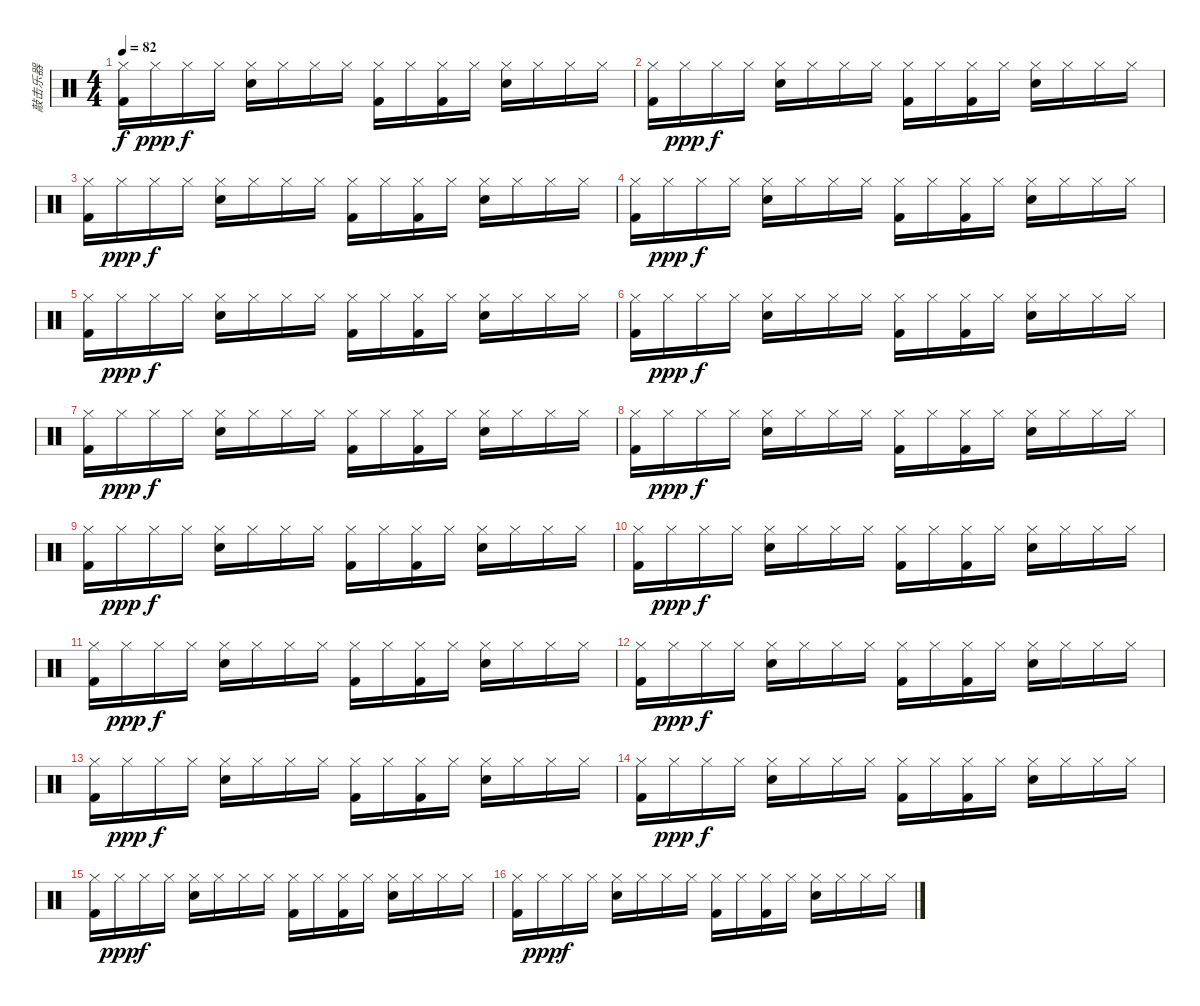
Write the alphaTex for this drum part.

\track ("敲击乐器" "敲击乐器") {instrument percussion}
\staff {score}
\articulation defaults
\ts (4 4)
\tempo 82
\clef neutral
\ks c
("Kick (hit) 2" "Hi-Hat (closed)").16{dy f} "Hi-Hat (closed)".16{dy ppp} "Hi-Hat (closed)".16{dy f} "Hi-Hat (closed)".16 ("Electric Snare (hit)" "Hi-Hat (closed)").16 "Hi-Hat (closed)".16 "Hi-Hat (closed)".16 "Hi-Hat (closed)".16 ("Kick (hit) 2" "Hi-Hat (closed)").16 "Hi-Hat (closed)".16 ("Kick (hit) 2" "Hi-Hat (closed)").16 "Hi-Hat (closed)".16 ("Electric Snare (hit)" "Hi-Hat (closed)").16 "Hi-Hat (closed)".16 "Hi-Hat (closed)".16 "Hi-Hat (closed)".16 |
("Kick (hit) 2" "Hi-Hat (closed)").16 "Hi-Hat (closed)".16{dy ppp} "Hi-Hat (closed)".16{dy f} "Hi-Hat (closed)".16 ("Electric Snare (hit)" "Hi-Hat (closed)").16 "Hi-Hat (closed)".16 "Hi-Hat (closed)".16 "Hi-Hat (closed)".16 ("Kick (hit) 2" "Hi-Hat (closed)").16 "Hi-Hat (closed)".16 ("Kick (hit) 2" "Hi-Hat (closed)").16 "Hi-Hat (closed)".16 ("Electric Snare (hit)" "Hi-Hat (closed)").16 "Hi-Hat (closed)".16 "Hi-Hat (closed)".16 "Hi-Hat (closed)".16 |
("Kick (hit) 2" "Hi-Hat (closed)").16 "Hi-Hat (closed)".16{dy ppp} "Hi-Hat (closed)".16{dy f} "Hi-Hat (closed)".16 ("Electric Snare (hit)" "Hi-Hat (closed)").16 "Hi-Hat (closed)".16 "Hi-Hat (closed)".16 "Hi-Hat (closed)".16 ("Kick (hit) 2" "Hi-Hat (closed)").16 "Hi-Hat (closed)".16 ("Kick (hit) 2" "Hi-Hat (closed)").16 "Hi-Hat (closed)".16 ("Electric Snare (hit)" "Hi-Hat (closed)").16 "Hi-Hat (closed)".16 "Hi-Hat (closed)".16 "Hi-Hat (closed)".16 |
("Kick (hit) 2" "Hi-Hat (closed)").16 "Hi-Hat (closed)".16{dy ppp} "Hi-Hat (closed)".16{dy f} "Hi-Hat (closed)".16 ("Electric Snare (hit)" "Hi-Hat (closed)").16 "Hi-Hat (closed)".16 "Hi-Hat (closed)".16 "Hi-Hat (closed)".16 ("Kick (hit) 2" "Hi-Hat (closed)").16 "Hi-Hat (closed)".16 ("Kick (hit) 2" "Hi-Hat (closed)").16 "Hi-Hat (closed)".16 ("Electric Snare (hit)" "Hi-Hat (closed)").16 "Hi-Hat (closed)".16 "Hi-Hat (closed)".16 "Hi-Hat (closed)".16 |
("Kick (hit) 2" "Hi-Hat (closed)").16 "Hi-Hat (closed)".16{dy ppp} "Hi-Hat (closed)".16{dy f} "Hi-Hat (closed)".16 ("Electric Snare (hit)" "Hi-Hat (closed)").16 "Hi-Hat (closed)".16 "Hi-Hat (closed)".16 "Hi-Hat (closed)".16 ("Kick (hit) 2" "Hi-Hat (closed)").16 "Hi-Hat (closed)".16 ("Kick (hit) 2" "Hi-Hat (closed)").16 "Hi-Hat (closed)".16 ("Electric Snare (hit)" "Hi-Hat (closed)").16 "Hi-Hat (closed)".16 "Hi-Hat (closed)".16 "Hi-Hat (closed)".16 |
("Kick (hit) 2" "Hi-Hat (closed)").16 "Hi-Hat (closed)".16{dy ppp} "Hi-Hat (closed)".16{dy f} "Hi-Hat (closed)".16 ("Electric Snare (hit)" "Hi-Hat (closed)").16 "Hi-Hat (closed)".16 "Hi-Hat (closed)".16 "Hi-Hat (closed)".16 ("Kick (hit) 2" "Hi-Hat (closed)").16 "Hi-Hat (closed)".16 ("Kick (hit) 2" "Hi-Hat (closed)").16 "Hi-Hat (closed)".16 ("Electric Snare (hit)" "Hi-Hat (closed)").16 "Hi-Hat (closed)".16 "Hi-Hat (closed)".16 "Hi-Hat (closed)".16 |
("Kick (hit) 2" "Hi-Hat (closed)").16 "Hi-Hat (closed)".16{dy ppp} "Hi-Hat (closed)".16{dy f} "Hi-Hat (closed)".16 ("Electric Snare (hit)" "Hi-Hat (closed)").16 "Hi-Hat (closed)".16 "Hi-Hat (closed)".16 "Hi-Hat (closed)".16 ("Kick (hit) 2" "Hi-Hat (closed)").16 "Hi-Hat (closed)".16 ("Kick (hit) 2" "Hi-Hat (closed)").16 "Hi-Hat (closed)".16 ("Electric Snare (hit)" "Hi-Hat (closed)").16 "Hi-Hat (closed)".16 "Hi-Hat (closed)".16 "Hi-Hat (closed)".16 |
("Kick (hit) 2" "Hi-Hat (closed)").16 "Hi-Hat (closed)".16{dy ppp} "Hi-Hat (closed)".16{dy f} "Hi-Hat (closed)".16 ("Electric Snare (hit)" "Hi-Hat (closed)").16 "Hi-Hat (closed)".16 "Hi-Hat (closed)".16 "Hi-Hat (closed)".16 ("Kick (hit) 2" "Hi-Hat (closed)").16 "Hi-Hat (closed)".16 ("Kick (hit) 2" "Hi-Hat (closed)").16 "Hi-Hat (closed)".16 ("Electric Snare (hit)" "Hi-Hat (closed)").16 "Hi-Hat (closed)".16 "Hi-Hat (closed)".16 "Hi-Hat (closed)".16 |
("Kick (hit) 2" "Hi-Hat (closed)").16 "Hi-Hat (closed)".16{dy ppp} "Hi-Hat (closed)".16{dy f} "Hi-Hat (closed)".16 ("Electric Snare (hit)" "Hi-Hat (closed)").16 "Hi-Hat (closed)".16 "Hi-Hat (closed)".16 "Hi-Hat (closed)".16 ("Kick (hit) 2" "Hi-Hat (closed)").16 "Hi-Hat (closed)".16 ("Kick (hit) 2" "Hi-Hat (closed)").16 "Hi-Hat (closed)".16 ("Electric Snare (hit)" "Hi-Hat (closed)").16 "Hi-Hat (closed)".16 "Hi-Hat (closed)".16 "Hi-Hat (closed)".16 |
("Kick (hit) 2" "Hi-Hat (closed)").16 "Hi-Hat (closed)".16{dy ppp} "Hi-Hat (closed)".16{dy f} "Hi-Hat (closed)".16 ("Electric Snare (hit)" "Hi-Hat (closed)").16 "Hi-Hat (closed)".16 "Hi-Hat (closed)".16 "Hi-Hat (closed)".16 ("Kick (hit) 2" "Hi-Hat (closed)").16 "Hi-Hat (closed)".16 ("Kick (hit) 2" "Hi-Hat (closed)").16 "Hi-Hat (closed)".16 ("Electric Snare (hit)" "Hi-Hat (closed)").16 "Hi-Hat (closed)".16 "Hi-Hat (closed)".16 "Hi-Hat (closed)".16 |
("Kick (hit) 2" "Hi-Hat (closed)").16 "Hi-Hat (closed)".16{dy ppp} "Hi-Hat (closed)".16{dy f} "Hi-Hat (closed)".16 ("Electric Snare (hit)" "Hi-Hat (closed)").16 "Hi-Hat (closed)".16 "Hi-Hat (closed)".16 "Hi-Hat (closed)".16 ("Kick (hit) 2" "Hi-Hat (closed)").16 "Hi-Hat (closed)".16 ("Kick (hit) 2" "Hi-Hat (closed)").16 "Hi-Hat (closed)".16 ("Electric Snare (hit)" "Hi-Hat (closed)").16 "Hi-Hat (closed)".16 "Hi-Hat (closed)".16 "Hi-Hat (closed)".16 |
("Kick (hit) 2" "Hi-Hat (closed)").16 "Hi-Hat (closed)".16{dy ppp} "Hi-Hat (closed)".16{dy f} "Hi-Hat (closed)".16 ("Electric Snare (hit)" "Hi-Hat (closed)").16 "Hi-Hat (closed)".16 "Hi-Hat (closed)".16 "Hi-Hat (closed)".16 ("Kick (hit) 2" "Hi-Hat (closed)").16 "Hi-Hat (closed)".16 ("Kick (hit) 2" "Hi-Hat (closed)").16 "Hi-Hat (closed)".16 ("Electric Snare (hit)" "Hi-Hat (closed)").16 "Hi-Hat (closed)".16 "Hi-Hat (closed)".16 "Hi-Hat (closed)".16 |
("Kick (hit) 2" "Hi-Hat (closed)").16 "Hi-Hat (closed)".16{dy ppp} "Hi-Hat (closed)".16{dy f} "Hi-Hat (closed)".16 ("Electric Snare (hit)" "Hi-Hat (closed)").16 "Hi-Hat (closed)".16 "Hi-Hat (closed)".16 "Hi-Hat (closed)".16 ("Kick (hit) 2" "Hi-Hat (closed)").16 "Hi-Hat (closed)".16 ("Kick (hit) 2" "Hi-Hat (closed)").16 "Hi-Hat (closed)".16 ("Electric Snare (hit)" "Hi-Hat (closed)").16 "Hi-Hat (closed)".16 "Hi-Hat (closed)".16 "Hi-Hat (closed)".16 |
("Kick (hit) 2" "Hi-Hat (closed)").16 "Hi-Hat (closed)".16{dy ppp} "Hi-Hat (closed)".16{dy f} "Hi-Hat (closed)".16 ("Electric Snare (hit)" "Hi-Hat (closed)").16 "Hi-Hat (closed)".16 "Hi-Hat (closed)".16 "Hi-Hat (closed)".16 ("Kick (hit) 2" "Hi-Hat (closed)").16 "Hi-Hat (closed)".16 ("Kick (hit) 2" "Hi-Hat (closed)").16 "Hi-Hat (closed)".16 ("Electric Snare (hit)" "Hi-Hat (closed)").16 "Hi-Hat (closed)".16 "Hi-Hat (closed)".16 "Hi-Hat (closed)".16 |
("Kick (hit) 2" "Hi-Hat (closed)").16 "Hi-Hat (closed)".16{dy ppp} "Hi-Hat (closed)".16{dy f} "Hi-Hat (closed)".16 ("Electric Snare (hit)" "Hi-Hat (closed)").16 "Hi-Hat (closed)".16 "Hi-Hat (closed)".16 "Hi-Hat (closed)".16 ("Kick (hit) 2" "Hi-Hat (closed)").16 "Hi-Hat (closed)".16 ("Kick (hit) 2" "Hi-Hat (closed)").16 "Hi-Hat (closed)".16 ("Electric Snare (hit)" "Hi-Hat (closed)").16 "Hi-Hat (closed)".16 "Hi-Hat (closed)".16 "Hi-Hat (closed)".16 |
("Kick (hit) 2" "Hi-Hat (closed)").16 "Hi-Hat (closed)".16{dy ppp} "Hi-Hat (closed)".16{dy f} "Hi-Hat (closed)".16 ("Electric Snare (hit)" "Hi-Hat (closed)").16 "Hi-Hat (closed)".16 "Hi-Hat (closed)".16 "Hi-Hat (closed)".16 ("Kick (hit) 2" "Hi-Hat (closed)").16 "Hi-Hat (closed)".16 ("Kick (hit) 2" "Hi-Hat (closed)").16 "Hi-Hat (closed)".16 ("Electric Snare (hit)" "Hi-Hat (closed)").16 "Hi-Hat (closed)".16 "Hi-Hat (closed)".16 "Hi-Hat (closed)".16
